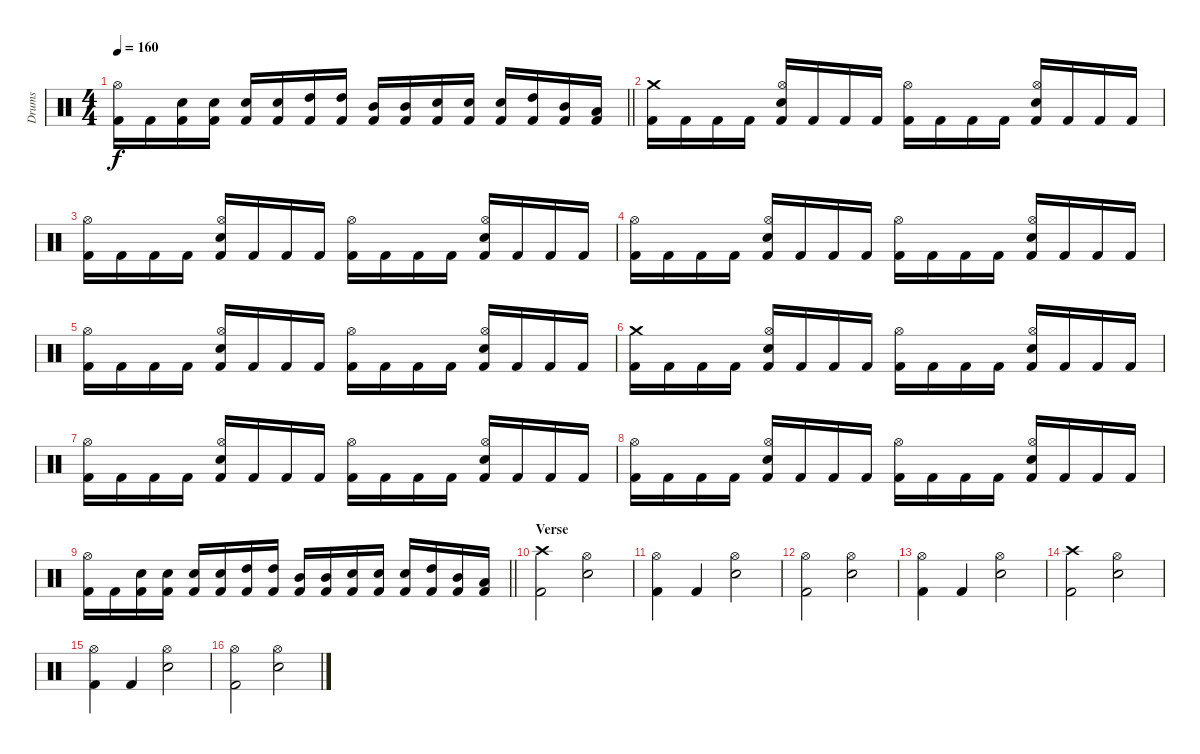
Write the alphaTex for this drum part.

\track ("Drums" "Drums") {instrument percussion}
\staff {score}
\articulation defaults
\ts (4 4)
\tempo 160
\clef neutral
\barLineRight lightlight
\ks c
("Kick (hit) 2" "Hi-Hat (open)").16{dy f} "Kick (hit) 2".16 ("Kick (hit) 2" "Electric Snare (hit)").16 ("Kick (hit) 2" "Electric Snare (hit)").16 ("Kick (hit) 2" "Electric Snare (hit)").16 ("Kick (hit) 2" "Electric Snare (hit)").16 ("Kick (hit) 2" "High Tom (hit)").16 ("Kick (hit) 2" "High Tom (hit)").16 ("Kick (hit) 2" "Mid Tom (hit)").16 ("Kick (hit) 2" "Mid Tom (hit)").16 ("Kick (hit) 2" "Electric Snare (hit)").16 ("Kick (hit) 2" "Electric Snare (hit)").16 ("Kick (hit) 2" "Electric Snare (hit)").16 ("Kick (hit) 2" "High Tom (hit)").16 ("Kick (hit) 2" "Mid Tom (hit)").16 ("Kick (hit) 2" "Low Tom (hit)").16 |
("Kick (hit) 2" "Crash medium (hit)").16 "Kick (hit) 2".16 "Kick (hit) 2".16 "Kick (hit) 2".16 ("Kick (hit) 2" "Electric Snare (hit)" "Hi-Hat (open)").16 "Kick (hit) 2".16 "Kick (hit) 2".16 "Kick (hit) 2".16 ("Kick (hit) 2" "Hi-Hat (open)").16 "Kick (hit) 2".16 "Kick (hit) 2".16 "Kick (hit) 2".16 ("Kick (hit) 2" "Electric Snare (hit)" "Hi-Hat (open)").16 "Kick (hit) 2".16 "Kick (hit) 2".16 "Kick (hit) 2".16 |
("Kick (hit) 2" "Hi-Hat (open)").16 "Kick (hit) 2".16 "Kick (hit) 2".16 "Kick (hit) 2".16 ("Kick (hit) 2" "Electric Snare (hit)" "Hi-Hat (open)").16 "Kick (hit) 2".16 "Kick (hit) 2".16 "Kick (hit) 2".16 ("Kick (hit) 2" "Hi-Hat (open)").16 "Kick (hit) 2".16 "Kick (hit) 2".16 "Kick (hit) 2".16 ("Kick (hit) 2" "Electric Snare (hit)" "Hi-Hat (open)").16 "Kick (hit) 2".16 "Kick (hit) 2".16 "Kick (hit) 2".16 |
("Kick (hit) 2" "Hi-Hat (open)").16 "Kick (hit) 2".16 "Kick (hit) 2".16 "Kick (hit) 2".16 ("Kick (hit) 2" "Electric Snare (hit)" "Hi-Hat (open)").16 "Kick (hit) 2".16 "Kick (hit) 2".16 "Kick (hit) 2".16 ("Kick (hit) 2" "Hi-Hat (open)").16 "Kick (hit) 2".16 "Kick (hit) 2".16 "Kick (hit) 2".16 ("Kick (hit) 2" "Electric Snare (hit)" "Hi-Hat (open)").16 "Kick (hit) 2".16 "Kick (hit) 2".16 "Kick (hit) 2".16 |
("Kick (hit) 2" "Hi-Hat (open)").16 "Kick (hit) 2".16 "Kick (hit) 2".16 "Kick (hit) 2".16 ("Kick (hit) 2" "Electric Snare (hit)" "Hi-Hat (open)").16 "Kick (hit) 2".16 "Kick (hit) 2".16 "Kick (hit) 2".16 ("Kick (hit) 2" "Hi-Hat (open)").16 "Kick (hit) 2".16 "Kick (hit) 2".16 "Kick (hit) 2".16 ("Kick (hit) 2" "Electric Snare (hit)" "Hi-Hat (open)").16 "Kick (hit) 2".16 "Kick (hit) 2".16 "Kick (hit) 2".16 |
("Kick (hit) 2" "Crash medium (hit)").16 "Kick (hit) 2".16 "Kick (hit) 2".16 "Kick (hit) 2".16 ("Kick (hit) 2" "Electric Snare (hit)" "Hi-Hat (open)").16 "Kick (hit) 2".16 "Kick (hit) 2".16 "Kick (hit) 2".16 ("Kick (hit) 2" "Hi-Hat (open)").16 "Kick (hit) 2".16 "Kick (hit) 2".16 "Kick (hit) 2".16 ("Kick (hit) 2" "Electric Snare (hit)" "Hi-Hat (open)").16 "Kick (hit) 2".16 "Kick (hit) 2".16 "Kick (hit) 2".16 |
("Kick (hit) 2" "Hi-Hat (open)").16 "Kick (hit) 2".16 "Kick (hit) 2".16 "Kick (hit) 2".16 ("Kick (hit) 2" "Electric Snare (hit)" "Hi-Hat (open)").16 "Kick (hit) 2".16 "Kick (hit) 2".16 "Kick (hit) 2".16 ("Kick (hit) 2" "Hi-Hat (open)").16 "Kick (hit) 2".16 "Kick (hit) 2".16 "Kick (hit) 2".16 ("Kick (hit) 2" "Electric Snare (hit)" "Hi-Hat (open)").16 "Kick (hit) 2".16 "Kick (hit) 2".16 "Kick (hit) 2".16 |
("Kick (hit) 2" "Hi-Hat (open)").16 "Kick (hit) 2".16 "Kick (hit) 2".16 "Kick (hit) 2".16 ("Kick (hit) 2" "Electric Snare (hit)" "Hi-Hat (open)").16 "Kick (hit) 2".16 "Kick (hit) 2".16 "Kick (hit) 2".16 ("Kick (hit) 2" "Hi-Hat (open)").16 "Kick (hit) 2".16 "Kick (hit) 2".16 "Kick (hit) 2".16 ("Kick (hit) 2" "Electric Snare (hit)" "Hi-Hat (open)").16 "Kick (hit) 2".16 "Kick (hit) 2".16 "Kick (hit) 2".16 |
\barLineRight lightlight
("Kick (hit) 2" "Hi-Hat (open)").16 "Kick (hit) 2".16 ("Kick (hit) 2" "Electric Snare (hit)").16 ("Kick (hit) 2" "Electric Snare (hit)").16 ("Kick (hit) 2" "Electric Snare (hit)").16 ("Kick (hit) 2" "Electric Snare (hit)").16 ("Kick (hit) 2" "High Tom (hit)").16 ("Kick (hit) 2" "High Tom (hit)").16 ("Kick (hit) 2" "Mid Tom (hit)").16 ("Kick (hit) 2" "Mid Tom (hit)").16 ("Kick (hit) 2" "Electric Snare (hit)").16 ("Kick (hit) 2" "Electric Snare (hit)").16 ("Kick (hit) 2" "Electric Snare (hit)").16 ("Kick (hit) 2" "High Tom (hit)").16 ("Kick (hit) 2" "Mid Tom (hit)").16 ("Kick (hit) 2" "Low Tom (hit)").16 |
\section ("" "Verse ")
("Crash high (hit)" "Kick (hit) 2").2 ("Hi-Hat (open)" "Electric Snare (hit)").2 |
("Hi-Hat (open)" "Kick (hit) 2").4 "Kick (hit) 2".4 ("Hi-Hat (open)" "Electric Snare (hit)").2 |
("Hi-Hat (open)" "Kick (hit) 2").2 ("Hi-Hat (open)" "Electric Snare (hit)").2 |
("Hi-Hat (open)" "Kick (hit) 2").4 "Kick (hit) 2".4 ("Hi-Hat (open)" "Electric Snare (hit)").2 |
("Crash high (hit)" "Kick (hit) 2").2 ("Hi-Hat (open)" "Electric Snare (hit)").2 |
("Hi-Hat (open)" "Kick (hit) 2").4 "Kick (hit) 2".4 ("Hi-Hat (open)" "Electric Snare (hit)").2 |
("Hi-Hat (open)" "Kick (hit) 2").2 ("Hi-Hat (open)" "Electric Snare (hit)").2
